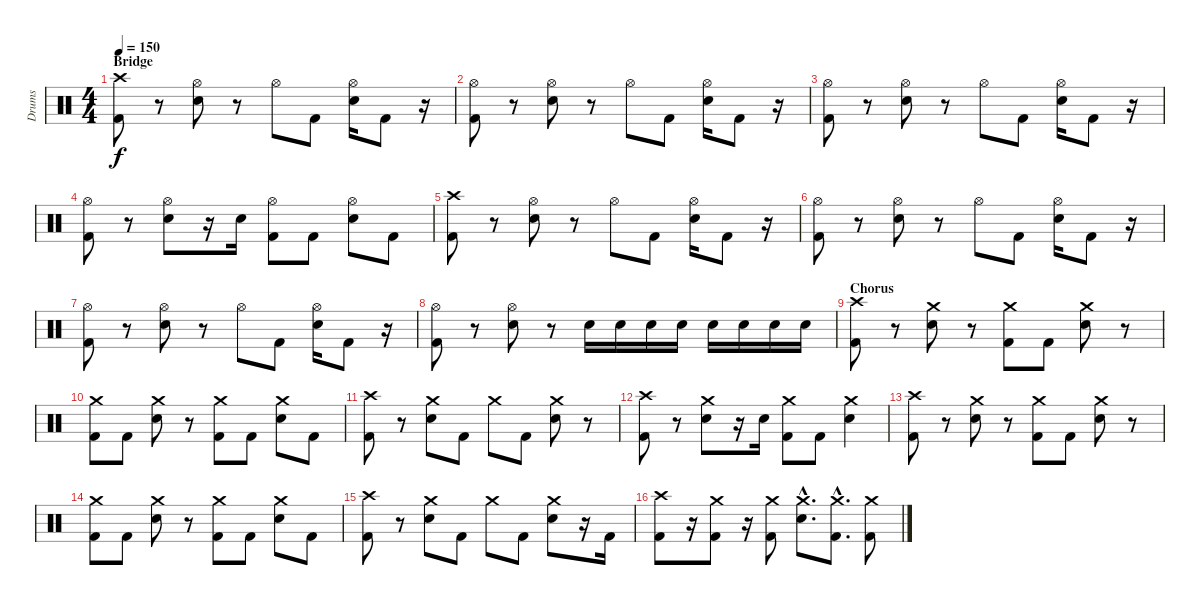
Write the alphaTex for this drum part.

\track ("Drums" "Drums") {instrument percussion}
\staff {score}
\articulation defaults
\ts (4 4)
\section ("" "Bridge")
\tempo 150
\clef neutral
\ks c
("Crash high (hit)" "Kick (hit) 2").8{dy f} r.8 ("Hi-Hat (open)" "Electric Snare (hit)").8 r.8 "Hi-Hat (open)".8 "Kick (hit) 2".8 ("Hi-Hat (open)" "Electric Snare (hit)").16 "Kick (hit) 2".8 r.16 |
("Hi-Hat (open)" "Kick (hit) 2").8 r.8 ("Hi-Hat (open)" "Electric Snare (hit)").8 r.8 "Hi-Hat (open)".8 "Kick (hit) 2".8 ("Hi-Hat (open)" "Electric Snare (hit)").16 "Kick (hit) 2".8 r.16 |
("Hi-Hat (open)" "Kick (hit) 2").8 r.8 ("Hi-Hat (open)" "Electric Snare (hit)").8 r.8 "Hi-Hat (open)".8 "Kick (hit) 2".8 ("Hi-Hat (open)" "Electric Snare (hit)").16 "Kick (hit) 2".8 r.16 |
("Hi-Hat (open)" "Kick (hit) 2").8 r.8 ("Hi-Hat (open)" "Electric Snare (hit)").8 r.16 "Electric Snare (hit)".16 ("Hi-Hat (open)" "Kick (hit) 2").8 "Kick (hit) 2".8 ("Hi-Hat (open)" "Electric Snare (hit)").8 "Kick (hit) 2".8 |
("Crash high (hit)" "Kick (hit) 2").8 r.8 ("Hi-Hat (open)" "Electric Snare (hit)").8 r.8 "Hi-Hat (open)".8 "Kick (hit) 2".8 ("Hi-Hat (open)" "Electric Snare (hit)").16 "Kick (hit) 2".8 r.16 |
("Hi-Hat (open)" "Kick (hit) 2").8 r.8 ("Hi-Hat (open)" "Electric Snare (hit)").8 r.8 "Hi-Hat (open)".8 "Kick (hit) 2".8 ("Hi-Hat (open)" "Electric Snare (hit)").16 "Kick (hit) 2".8 r.16 |
("Hi-Hat (open)" "Kick (hit) 2").8 r.8 ("Hi-Hat (open)" "Electric Snare (hit)").8 r.8 "Hi-Hat (open)".8 "Kick (hit) 2".8 ("Hi-Hat (open)" "Electric Snare (hit)").16 "Kick (hit) 2".8 r.16 |
("Hi-Hat (open)" "Kick (hit) 2").8 r.8 ("Hi-Hat (open)" "Electric Snare (hit)").8 r.8 "Electric Snare (hit)".16 "Electric Snare (hit)".16 "Electric Snare (hit)".16 "Electric Snare (hit)".16 "Electric Snare (hit)".16 "Electric Snare (hit)".16 "Electric Snare (hit)".16 "Electric Snare (hit)".16 |
\section ("" "Chorus")
("Crash high (hit)" "Kick (hit) 2").8 r.8 ("Crash medium (hit)" "Electric Snare (hit)").8 r.8 ("Crash medium (hit)" "Kick (hit) 2").8 "Kick (hit) 2".8 ("Crash medium (hit)" "Electric Snare (hit)").8 r.8 |
("Crash medium (hit)" "Kick (hit) 2").8 "Kick (hit) 2".8 ("Crash medium (hit)" "Electric Snare (hit)").8 r.8 ("Crash medium (hit)" "Kick (hit) 2").8 "Kick (hit) 2".8 ("Crash medium (hit)" "Electric Snare (hit)").8 "Kick (hit) 2".8 |
("Crash high (hit)" "Kick (hit) 2").8 r.8 ("Crash medium (hit)" "Electric Snare (hit)").8 "Kick (hit) 2".8 "Crash medium (hit)".8 "Kick (hit) 2".8 ("Crash medium (hit)" "Electric Snare (hit)").8 r.8 |
("Crash high (hit)" "Kick (hit) 2").8 r.8 ("Crash medium (hit)" "Electric Snare (hit)").8 r.16 "Electric Snare (hit)".16 ("Crash medium (hit)" "Kick (hit) 2").8 "Kick (hit) 2".8 ("Crash medium (hit)" "Electric Snare (hit)").4 |
("Crash high (hit)" "Kick (hit) 2").8 r.8 ("Crash medium (hit)" "Electric Snare (hit)").8 r.8 ("Crash medium (hit)" "Kick (hit) 2").8 "Kick (hit) 2".8 ("Crash medium (hit)" "Electric Snare (hit)").8 r.8 |
("Crash medium (hit)" "Kick (hit) 2").8 "Kick (hit) 2".8 ("Crash medium (hit)" "Electric Snare (hit)").8 r.8 ("Crash medium (hit)" "Kick (hit) 2").8 "Kick (hit) 2".8 ("Crash medium (hit)" "Electric Snare (hit)").8 "Kick (hit) 2".8 |
("Crash high (hit)" "Kick (hit) 2").8 r.8 ("Crash medium (hit)" "Electric Snare (hit)").8 "Kick (hit) 2".8 "Crash medium (hit)".8 "Kick (hit) 2".8 ("Crash medium (hit)" "Electric Snare (hit)").8 r.16 "Kick (hit) 2".16 |
("Crash high (hit)" "Kick (hit) 2").8 r.16 ("Crash medium (hit)" "Kick (hit) 2").8 r.16 ("Crash medium (hit)" "Kick (hit) 2").8 ("Crash medium (hit)"{hac} "Electric Snare (hit)"{hac}).8{d} ("Crash medium (hit)"{hac} "Kick (hit) 2"{hac}).8{d} ("Crash medium (hit)" "Kick (hit) 2").8
